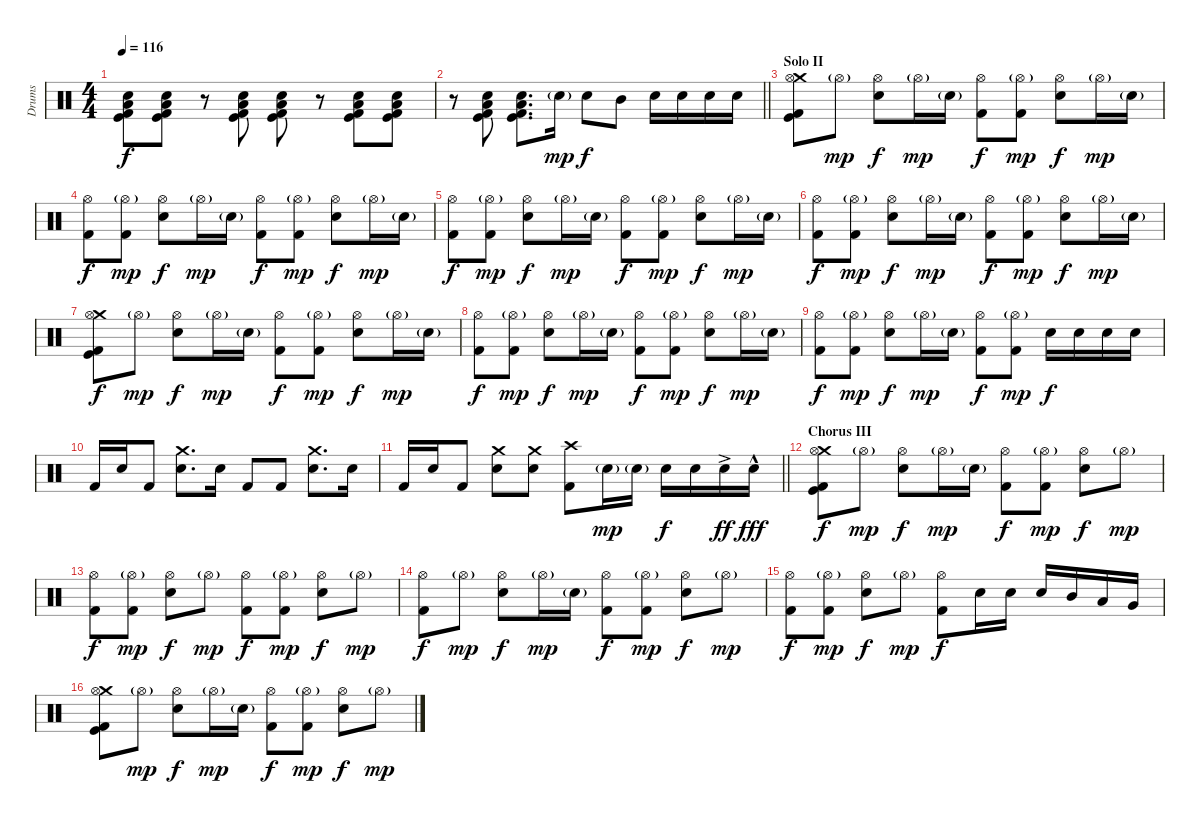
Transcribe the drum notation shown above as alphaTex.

\track ("Drums" "Drums") {instrument percussion}
\staff {score}
\articulation defaults
\ts (4 4)
\tempo 116
\clef neutral
\ks c
("Electric Snare (hit)" "Kick (hit) 2" "Kick (hit)" "Low Floor Tom (hit)").8{dy f} ("Electric Snare (hit)" "Kick (hit) 2" "Kick (hit)" "Low Floor Tom (hit)").8 r.8 ("Electric Snare (hit)" "Kick (hit) 2" "Kick (hit)" "Low Floor Tom (hit)").8 ("Electric Snare (hit)" "Kick (hit) 2" "Kick (hit)" "Low Floor Tom (hit)").8 r.8 ("Electric Snare (hit)" "Kick (hit) 2" "Kick (hit)" "Low Floor Tom (hit)").8 ("Electric Snare (hit)" "Kick (hit) 2" "Kick (hit)" "Low Floor Tom (hit)").8 |
\barLineRight lightlight
r.8 ("Electric Snare (hit)" "Kick (hit) 2" "Kick (hit)" "Low Floor Tom (hit)").8 ("Electric Snare (hit)" "Kick (hit) 2" "Kick (hit)" "Low Floor Tom (hit)").8{d} "Electric Snare (hit)"{g}.16{dy mp} "Electric Snare (hit)".8{dy f} "Mid Tom (hit)".8 "Electric Snare (hit)".16 "Electric Snare (hit)".16 "Electric Snare (hit)".16 "Electric Snare (hit)".16 |
\section ("" "Solo II")
("Crash medium (hit)" "Hi-Hat (open)" "Kick (hit)" "Kick (hit) 2").8 "Hi-Hat (open)"{g}.8{dy mp} ("Hi-Hat (open)" "Electric Snare (hit)").8{dy f} "Hi-Hat (open)"{g}.16{dy mp} "Electric Snare (hit)"{g}.16 ("Hi-Hat (open)" "Kick (hit) 2").8{dy f} ("Hi-Hat (open)"{g} "Kick (hit) 2").8{dy mp} ("Hi-Hat (open)" "Electric Snare (hit)").8{dy f} "Hi-Hat (open)"{g}.16{dy mp} "Electric Snare (hit)"{g}.16 |
("Hi-Hat (open)" "Kick (hit) 2").8{dy f} ("Hi-Hat (open)"{g} "Kick (hit) 2").8{dy mp} ("Hi-Hat (open)" "Electric Snare (hit)").8{dy f} "Hi-Hat (open)"{g}.16{dy mp} "Electric Snare (hit)"{g}.16 ("Hi-Hat (open)" "Kick (hit) 2").8{dy f} ("Hi-Hat (open)"{g} "Kick (hit) 2").8{dy mp} ("Hi-Hat (open)" "Electric Snare (hit)").8{dy f} "Hi-Hat (open)"{g}.16{dy mp} "Electric Snare (hit)"{g}.16 |
("Hi-Hat (open)" "Kick (hit) 2").8{dy f} ("Hi-Hat (open)"{g} "Kick (hit) 2").8{dy mp} ("Hi-Hat (open)" "Electric Snare (hit)").8{dy f} "Hi-Hat (open)"{g}.16{dy mp} "Electric Snare (hit)"{g}.16 ("Hi-Hat (open)" "Kick (hit) 2").8{dy f} ("Hi-Hat (open)"{g} "Kick (hit) 2").8{dy mp} ("Hi-Hat (open)" "Electric Snare (hit)").8{dy f} "Hi-Hat (open)"{g}.16{dy mp} "Electric Snare (hit)"{g}.16 |
("Hi-Hat (open)" "Kick (hit) 2").8{dy f} ("Hi-Hat (open)"{g} "Kick (hit) 2").8{dy mp} ("Hi-Hat (open)" "Electric Snare (hit)").8{dy f} "Hi-Hat (open)"{g}.16{dy mp} "Electric Snare (hit)"{g}.16 ("Hi-Hat (open)" "Kick (hit) 2").8{dy f} ("Hi-Hat (open)"{g} "Kick (hit) 2").8{dy mp} ("Hi-Hat (open)" "Electric Snare (hit)").8{dy f} "Hi-Hat (open)"{g}.16{dy mp} "Electric Snare (hit)"{g}.16 |
("Crash medium (hit)" "Hi-Hat (open)" "Kick (hit)" "Kick (hit) 2").8{dy f} "Hi-Hat (open)"{g}.8{dy mp} ("Hi-Hat (open)" "Electric Snare (hit)").8{dy f} "Hi-Hat (open)"{g}.16{dy mp} "Electric Snare (hit)"{g}.16 ("Hi-Hat (open)" "Kick (hit) 2").8{dy f} ("Hi-Hat (open)"{g} "Kick (hit) 2").8{dy mp} ("Hi-Hat (open)" "Electric Snare (hit)").8{dy f} "Hi-Hat (open)"{g}.16{dy mp} "Electric Snare (hit)"{g}.16 |
("Hi-Hat (open)" "Kick (hit) 2").8{dy f} ("Hi-Hat (open)"{g} "Kick (hit) 2").8{dy mp} ("Hi-Hat (open)" "Electric Snare (hit)").8{dy f} "Hi-Hat (open)"{g}.16{dy mp} "Electric Snare (hit)"{g}.16 ("Hi-Hat (open)" "Kick (hit) 2").8{dy f} ("Hi-Hat (open)"{g} "Kick (hit) 2").8{dy mp} ("Hi-Hat (open)" "Electric Snare (hit)").8{dy f} "Hi-Hat (open)"{g}.16{dy mp} "Electric Snare (hit)"{g}.16 |
("Hi-Hat (open)" "Kick (hit) 2").8{dy f} ("Hi-Hat (open)"{g} "Kick (hit) 2").8{dy mp} ("Hi-Hat (open)" "Electric Snare (hit)").8{dy f} "Hi-Hat (open)"{g}.16{dy mp} "Electric Snare (hit)"{g}.16 ("Hi-Hat (open)" "Kick (hit) 2").8{dy f} ("Hi-Hat (open)"{g} "Kick (hit) 2").8{dy mp} "Electric Snare (hit)".16{dy f} "Electric Snare (hit)".16 "Electric Snare (hit)".16 "Electric Snare (hit)".16 |
"Kick (hit) 2".16 "Electric Snare (hit)".16 "Kick (hit) 2".8 ("Crash medium (hit)" "Electric Snare (hit)").8{d} "Electric Snare (hit)".16 "Kick (hit) 2".8 "Kick (hit) 2".8 ("Crash medium (hit)" "Electric Snare (hit)").8{d} "Electric Snare (hit)".16 |
\barLineRight lightlight "Kick (hit) 2".16 "Electric Snare (hit)".16 "Kick (hit) 2".8
("Crash medium (hit)" "Electric Snare (hit)").8 ("Crash medium (hit)" "Electric Snare (hit)").8 ("Crash high (hit)" "Kick (hit) 2").8 "Electric Snare (hit)"{g}.16{dy mp} "Electric Snare (hit)"{g}.16 "Electric Snare (hit)".16{dy f} "Electric Snare (hit)".16 "Electric Snare (hit)"{ac}.16{dy ff} "Electric Snare (hit)"{hac}.16{dy fff} |
\section ("" "Chorus III")
("Crash medium (hit)" "Hi-Hat (open)" "Kick (hit)" "Kick (hit) 2").8{dy f} "Hi-Hat (open)"{g}.8{dy mp} ("Hi-Hat (open)" "Electric Snare (hit)").8{dy f} "Hi-Hat (open)"{g}.16{dy mp} "Electric Snare (hit)"{g}.16 ("Hi-Hat (open)" "Kick (hit) 2").8{dy f} ("Hi-Hat (open)"{g} "Kick (hit) 2").8{dy mp} ("Hi-Hat (open)" "Electric Snare (hit)").8{dy f} "Hi-Hat (open)"{g}.8{dy mp} |
("Hi-Hat (open)" "Kick (hit) 2").8{dy f} ("Hi-Hat (open)"{g} "Kick (hit) 2").8{dy mp} ("Hi-Hat (open)" "Electric Snare (hit)").8{dy f} "Hi-Hat (open)"{g}.8{dy mp} ("Hi-Hat (open)" "Kick (hit) 2").8{dy f} ("Hi-Hat (open)"{g} "Kick (hit) 2").8{dy mp} ("Hi-Hat (open)" "Electric Snare (hit)").8{dy f} "Hi-Hat (open)"{g}.8{dy mp} |
("Hi-Hat (open)" "Kick (hit) 2").8{dy f} "Hi-Hat (open)"{g}.8{dy mp} ("Hi-Hat (open)" "Electric Snare (hit)").8{dy f} "Hi-Hat (open)"{g}.16{dy mp} "Electric Snare (hit)"{g}.16 ("Hi-Hat (open)" "Kick (hit) 2").8{dy f} ("Hi-Hat (open)"{g} "Kick (hit) 2").8{dy mp} ("Hi-Hat (open)" "Electric Snare (hit)").8{dy f} "Hi-Hat (open)"{g}.8{dy mp} |
("Hi-Hat (open)" "Kick (hit) 2").8{dy f} ("Hi-Hat (open)"{g} "Kick (hit) 2").8{dy mp} ("Hi-Hat (open)" "Electric Snare (hit)").8{dy f} "Hi-Hat (open)"{g}.8{dy mp} ("Hi-Hat (open)" "Kick (hit) 2").8{dy f} "Electric Snare (hit)".16 "Electric Snare (hit)".16 "Electric Snare (hit)".16 "Mid Tom (hit)".16 "Low Tom (hit)".16 "Very Low Tom (hit)".16 |
("Crash medium (hit)" "Hi-Hat (open)" "Kick (hit)" "Kick (hit) 2").8 "Hi-Hat (open)"{g}.8{dy mp} ("Hi-Hat (open)" "Electric Snare (hit)").8{dy f} "Hi-Hat (open)"{g}.16{dy mp} "Electric Snare (hit)"{g}.16 ("Hi-Hat (open)" "Kick (hit) 2").8{dy f} ("Hi-Hat (open)"{g} "Kick (hit) 2").8{dy mp} ("Hi-Hat (open)" "Electric Snare (hit)").8{dy f} "Hi-Hat (open)"{g}.8{dy mp}
